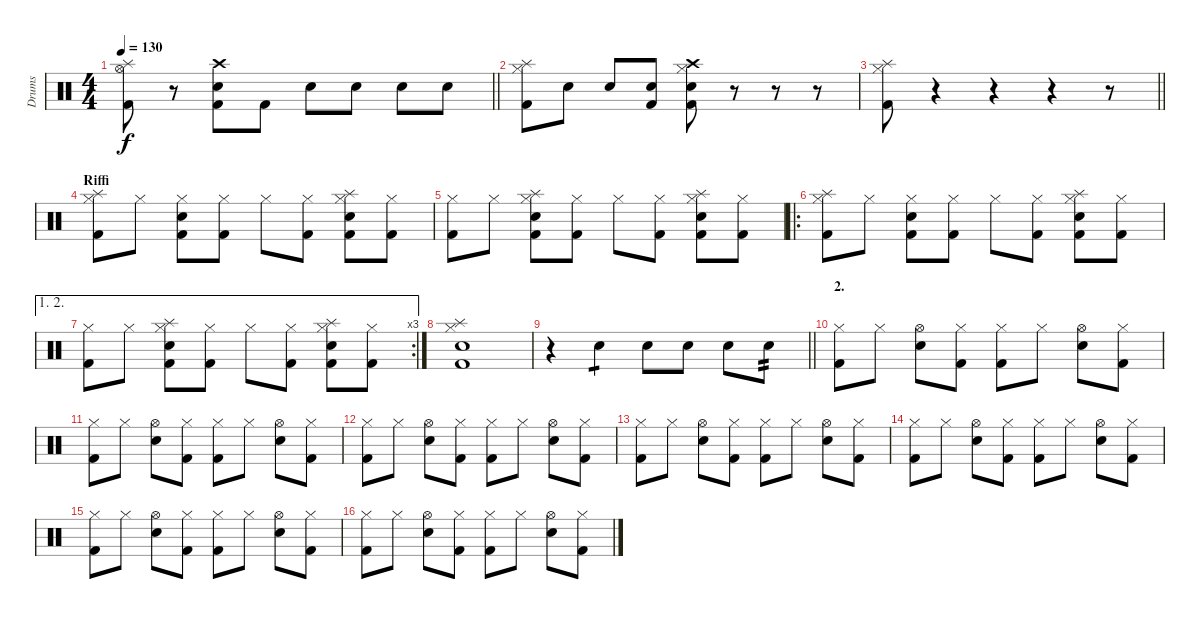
\track ("Drums" "Drums") {instrument percussion}
\staff {score}
\articulation defaults
\ts (4 4)
\tempo 130
\clef neutral
\barLineRight lightlight
\ks c
("Splash (hit)" "Kick (hit) 2" "Hi-Hat (open)").8{dy f} r.8 ("Electric Snare (hit)" "Kick (hit) 2" "Crash high (hit)").8 "Kick (hit) 2".8 "Electric Snare (hit)".8 "Electric Snare (hit)".8 "Electric Snare (hit)".8 "Electric Snare (hit)".8 |
("Splash (hit)" "Kick (hit) 2" "Hi-Hat (closed)").8 "Electric Snare (hit)".8 "Electric Snare (hit)".8 ("Kick (hit) 2" "Electric Snare (hit)").8 ("Crash high (hit)" "Electric Snare (hit)" "Kick (hit) 2" "Hi-Hat (closed)").8 r.8 r.8 r.8 |
\barLineRight lightlight
("Splash (hit)" "Kick (hit) 2" "Hi-Hat (closed)").8 r.4 r.4 r.4 r.8 |
\section ("" "Riffi")
("Splash (hit)" "Kick (hit) 2" "Hi-Hat (closed)").8 "Hi-Hat (closed)".8 ("Electric Snare (hit)" "Kick (hit) 2" "Hi-Hat (closed)").8 ("Kick (hit) 2" "Hi-Hat (closed)").8 "Hi-Hat (closed)".8 ("Kick (hit) 2" "Hi-Hat (closed)").8 ("Splash (hit)" "Electric Snare (hit)" "Kick (hit) 2" "Hi-Hat (closed)").8 ("Kick (hit) 2" "Hi-Hat (closed)").8 |
("Kick (hit) 2" "Hi-Hat (closed)").8 "Hi-Hat (closed)".8 ("Splash (hit)" "Electric Snare (hit)" "Kick (hit) 2" "Hi-Hat (closed)").8 ("Kick (hit) 2" "Hi-Hat (closed)").8 "Hi-Hat (closed)".8 ("Kick (hit) 2" "Hi-Hat (closed)").8 ("Splash (hit)" "Electric Snare (hit)" "Kick (hit) 2" "Hi-Hat (closed)").8 ("Kick (hit) 2" "Hi-Hat (closed)").8 |
\ro
("Splash (hit)" "Kick (hit) 2" "Hi-Hat (closed)").8 "Hi-Hat (closed)".8 ("Electric Snare (hit)" "Kick (hit) 2" "Hi-Hat (closed)").8 ("Kick (hit) 2" "Hi-Hat (closed)").8 "Hi-Hat (closed)".8 ("Kick (hit) 2" "Hi-Hat (closed)").8 ("Splash (hit)" "Electric Snare (hit)" "Kick (hit) 2" "Hi-Hat (closed)").8 ("Kick (hit) 2" "Hi-Hat (closed)").8 |
\ae (1 2)
\rc 3
("Kick (hit) 2" "Hi-Hat (closed)").8 "Hi-Hat (closed)".8 ("Splash (hit)" "Electric Snare (hit)" "Kick (hit) 2" "Hi-Hat (closed)").8 ("Kick (hit) 2" "Hi-Hat (closed)").8 "Hi-Hat (closed)".8 ("Kick (hit) 2" "Hi-Hat (closed)").8 ("Splash (hit)" "Electric Snare (hit)" "Kick (hit) 2" "Hi-Hat (closed)").8 ("Kick (hit) 2" "Hi-Hat (closed)").8 |
("Splash (hit)" "Electric Snare (hit)" "Kick (hit) 2" "Hi-Hat (closed)").1 |
\barLineRight lightlight
r.4 "Electric Snare (hit)".4{tp 1} "Electric Snare (hit)".8 "Electric Snare (hit)".8 "Electric Snare (hit)".8 "Electric Snare (hit)".8{tp 2} |
\section ("" "2.")
("Kick (hit) 2" "Hi-Hat (closed)").8 "Hi-Hat (closed)".8 ("Electric Snare (hit)" "Hi-Hat (open)").8 ("Kick (hit) 2" "Hi-Hat (closed)").8 ("Kick (hit) 2" "Hi-Hat (closed)").8 "Hi-Hat (closed)".8 ("Electric Snare (hit)" "Hi-Hat (open)").8 ("Kick (hit) 2" "Hi-Hat (closed)").8 |
("Kick (hit) 2" "Hi-Hat (closed)").8 "Hi-Hat (closed)".8 ("Electric Snare (hit)" "Hi-Hat (open)").8 ("Kick (hit) 2" "Hi-Hat (closed)").8 ("Kick (hit) 2" "Hi-Hat (closed)").8 "Hi-Hat (closed)".8 ("Electric Snare (hit)" "Hi-Hat (open)").8 ("Kick (hit) 2" "Hi-Hat (closed)").8 |
("Kick (hit) 2" "Hi-Hat (closed)").8 "Hi-Hat (closed)".8 ("Electric Snare (hit)" "Hi-Hat (open)").8 ("Kick (hit) 2" "Hi-Hat (closed)").8 ("Kick (hit) 2" "Hi-Hat (closed)").8 "Hi-Hat (closed)".8 ("Electric Snare (hit)" "Hi-Hat (open)").8 ("Kick (hit) 2" "Hi-Hat (closed)").8 |
("Kick (hit) 2" "Hi-Hat (closed)").8 "Hi-Hat (closed)".8 ("Electric Snare (hit)" "Hi-Hat (open)").8 ("Kick (hit) 2" "Hi-Hat (closed)").8 ("Kick (hit) 2" "Hi-Hat (closed)").8 "Hi-Hat (closed)".8 ("Electric Snare (hit)" "Hi-Hat (open)").8 ("Kick (hit) 2" "Hi-Hat (closed)").8 |
("Kick (hit) 2" "Hi-Hat (closed)").8 "Hi-Hat (closed)".8 ("Electric Snare (hit)" "Hi-Hat (open)").8 ("Kick (hit) 2" "Hi-Hat (closed)").8 ("Kick (hit) 2" "Hi-Hat (closed)").8 "Hi-Hat (closed)".8 ("Electric Snare (hit)" "Hi-Hat (open)").8 ("Kick (hit) 2" "Hi-Hat (closed)").8 |
("Kick (hit) 2" "Hi-Hat (closed)").8 "Hi-Hat (closed)".8 ("Electric Snare (hit)" "Hi-Hat (open)").8 ("Kick (hit) 2" "Hi-Hat (closed)").8 ("Kick (hit) 2" "Hi-Hat (closed)").8 "Hi-Hat (closed)".8 ("Electric Snare (hit)" "Hi-Hat (open)").8 ("Kick (hit) 2" "Hi-Hat (closed)").8 |
("Kick (hit) 2" "Hi-Hat (closed)").8 "Hi-Hat (closed)".8 ("Electric Snare (hit)" "Hi-Hat (open)").8 ("Kick (hit) 2" "Hi-Hat (closed)").8 ("Kick (hit) 2" "Hi-Hat (closed)").8 "Hi-Hat (closed)".8 ("Electric Snare (hit)" "Hi-Hat (open)").8 ("Kick (hit) 2" "Hi-Hat (closed)").8
